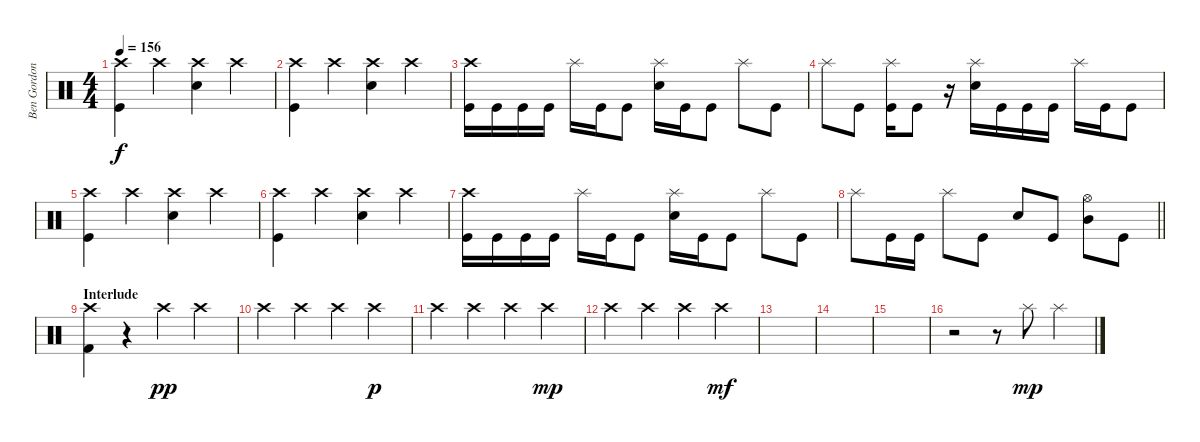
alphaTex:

\track ("Ben Gordon" "Ben Gordon") {instrument percussion}
\staff {score}
\articulation defaults
\ts (4 4)
\tempo 156
\clef neutral
\ks c
("Crash high (hit)" "Kick (hit)").4{dy f} "Crash high (hit)".4 ("Crash high (hit)" "Electric Snare (hit)").4 "Crash high (hit)".4 |
("Crash high (hit)" "Kick (hit)").4 "Crash high (hit)".4 ("Crash high (hit)" "Electric Snare (hit)").4 "Crash high (hit)".4 |
("Crash high (hit)" "Kick (hit)").16 "Kick (hit)".16 "Kick (hit)".16 "Kick (hit)".16 "Splash (hit)".16 "Kick (hit)".16 "Kick (hit)".8 ("Splash (hit)" "Electric Snare (hit)").16 "Kick (hit)".16 "Kick (hit)".8 "Splash (hit)".8 "Kick (hit)".8 |
"Splash (hit)".8 "Kick (hit)".8 ("Splash (hit)" "Kick (hit)").16 "Kick (hit)".8 r.16 ("Splash (hit)" "Electric Snare (hit)").16 "Kick (hit)".16 "Kick (hit)".16 "Kick (hit)".16 "Splash (hit)".16 "Kick (hit)".16 "Kick (hit)".8 |
("Crash high (hit)" "Kick (hit)").4 "Crash high (hit)".4 ("Crash high (hit)" "Electric Snare (hit)").4 "Crash high (hit)".4 |
("Crash high (hit)" "Kick (hit)").4 "Crash high (hit)".4 ("Crash high (hit)" "Electric Snare (hit)").4 "Crash high (hit)".4 |
("Crash high (hit)" "Kick (hit)").16 "Kick (hit)".16 "Kick (hit)".16 "Kick (hit)".16 "Splash (hit)".16 "Kick (hit)".16 "Kick (hit)".8 ("Splash (hit)" "Electric Snare (hit)").16 "Kick (hit)".16 "Kick (hit)".8 "Splash (hit)".8 "Kick (hit)".8 |
\barLineRight lightlight "Splash (hit)".8 "Kick (hit)".16 "Kick (hit)".16 "Splash (hit)".8 "Kick (hit)".8 "Electric Snare (hit)".8 "Kick (hit)".8
("Hi-Hat (open)" "Mid Tom (hit)").8 "Kick (hit)".8 |
\section ("" "Interlude")
("Crash high (hit)" "Kick (hit) 2").4 r.4 "Crash high (hit)".4{dy pp} "Crash high (hit)".4 |
"Crash high (hit)".4 "Crash high (hit)".4 "Crash high (hit)".4 "Crash high (hit)".4{dy p} |
"Crash high (hit)".4 "Crash high (hit)".4 "Crash high (hit)".4 "Crash high (hit)".4{dy mp} |
"Crash high (hit)".4 "Crash high (hit)".4 "Crash high (hit)".4 "Crash high (hit)".4{dy mf} |
|
|
|
r.2 r.8 "Splash (hit)".8{dy mp} "Splash (hit)".4
